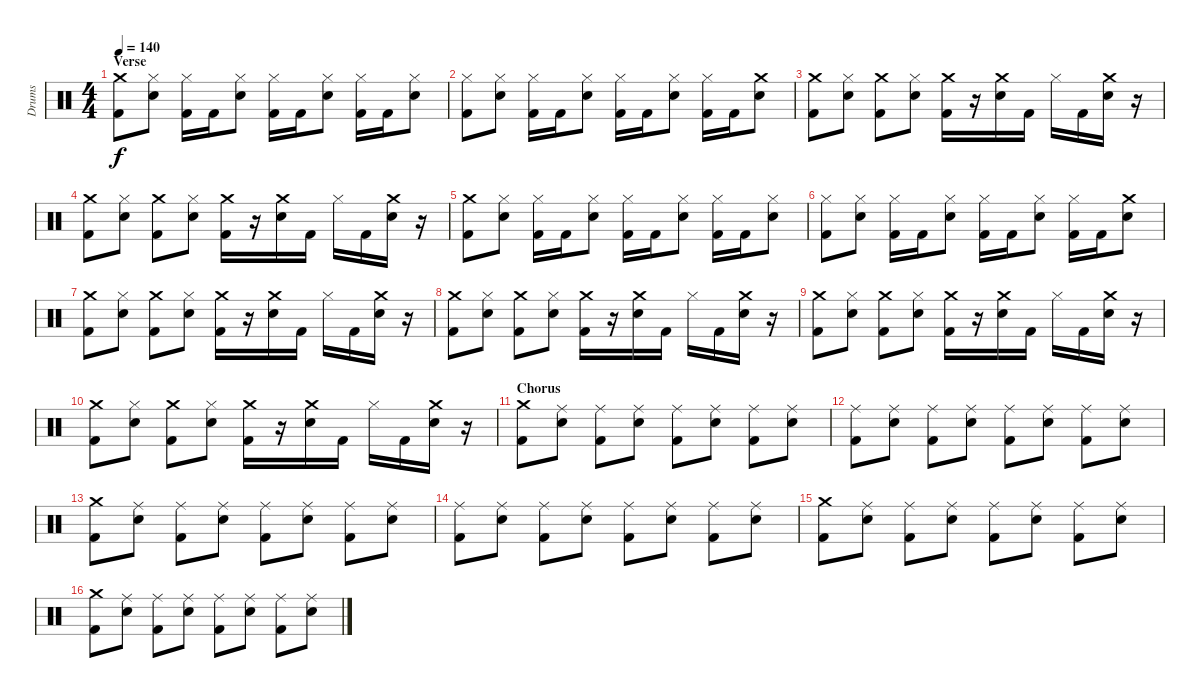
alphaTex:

\track ("Drums" "Drums") {instrument percussion}
\staff {score}
\articulation defaults
\ts (4 4)
\section ("" "Verse")
\tempo 140
\clef neutral
\ks c
("Crash medium (hit)" "Kick (hit) 2").8{dy f} ("Hi-Hat (closed)" "Snare (hit) 2").8 ("Hi-Hat (closed)" "Kick (hit) 2").16 "Kick (hit) 2".16 ("Hi-Hat (closed)" "Snare (hit) 2").8 ("Hi-Hat (closed)" "Kick (hit) 2").16 "Kick (hit) 2".16 ("Hi-Hat (closed)" "Snare (hit) 2").8 ("Hi-Hat (closed)" "Kick (hit) 2").16 "Kick (hit) 2".16 ("Hi-Hat (closed)" "Snare (hit) 2").8 |
("Hi-Hat (closed)" "Kick (hit) 2").8 ("Hi-Hat (closed)" "Snare (hit) 2").8 ("Hi-Hat (closed)" "Kick (hit) 2").16 "Kick (hit) 2".16 ("Hi-Hat (closed)" "Snare (hit) 2").8 ("Hi-Hat (closed)" "Kick (hit) 2").16 "Kick (hit) 2".16 ("Hi-Hat (closed)" "Snare (hit) 2").8 ("Hi-Hat (closed)" "Kick (hit) 2").16 "Kick (hit) 2".16 ("Crash medium (hit)" "Snare (hit) 2").8 |
("Crash medium (hit)" "Kick (hit) 2").8 ("Hi-Hat (closed)" "Snare (hit) 2").8 ("Crash medium (hit)" "Kick (hit) 2").8 ("Hi-Hat (closed)" "Snare (hit) 2").8 ("Crash medium (hit)" "Kick (hit) 2").16 r.16 ("Crash medium (hit)" "Snare (hit) 2").16 "Kick (hit) 2".16 "Hi-Hat (closed)".16 "Kick (hit) 2".16 ("Crash medium (hit)" "Snare (hit) 2").16 r.16 |
("Crash medium (hit)" "Kick (hit) 2").8 ("Hi-Hat (closed)" "Snare (hit) 2").8 ("Crash medium (hit)" "Kick (hit) 2").8 ("Hi-Hat (closed)" "Snare (hit) 2").8 ("Crash medium (hit)" "Kick (hit) 2").16 r.16 ("Crash medium (hit)" "Snare (hit) 2").16 "Kick (hit) 2".16 "Hi-Hat (closed)".16 "Kick (hit) 2".16 ("Crash medium (hit)" "Snare (hit) 2").16 r.16 |
("Crash medium (hit)" "Kick (hit) 2").8 ("Hi-Hat (closed)" "Snare (hit) 2").8 ("Hi-Hat (closed)" "Kick (hit) 2").16 "Kick (hit) 2".16 ("Hi-Hat (closed)" "Snare (hit) 2").8 ("Hi-Hat (closed)" "Kick (hit) 2").16 "Kick (hit) 2".16 ("Hi-Hat (closed)" "Snare (hit) 2").8 ("Hi-Hat (closed)" "Kick (hit) 2").16 "Kick (hit) 2".16 ("Hi-Hat (closed)" "Snare (hit) 2").8 |
("Hi-Hat (closed)" "Kick (hit) 2").8 ("Hi-Hat (closed)" "Snare (hit) 2").8 ("Hi-Hat (closed)" "Kick (hit) 2").16 "Kick (hit) 2".16 ("Hi-Hat (closed)" "Snare (hit) 2").8 ("Hi-Hat (closed)" "Kick (hit) 2").16 "Kick (hit) 2".16 ("Hi-Hat (closed)" "Snare (hit) 2").8 ("Hi-Hat (closed)" "Kick (hit) 2").16 "Kick (hit) 2".16 ("Crash medium (hit)" "Snare (hit) 2").8 |
("Crash medium (hit)" "Kick (hit) 2").8 ("Hi-Hat (closed)" "Snare (hit) 2").8 ("Crash medium (hit)" "Kick (hit) 2").8 ("Hi-Hat (closed)" "Snare (hit) 2").8 ("Crash medium (hit)" "Kick (hit) 2").16 r.16 ("Crash medium (hit)" "Snare (hit) 2").16 "Kick (hit) 2".16 "Hi-Hat (closed)".16 "Kick (hit) 2".16 ("Crash medium (hit)" "Snare (hit) 2").16 r.16 |
("Crash medium (hit)" "Kick (hit) 2").8 ("Hi-Hat (closed)" "Snare (hit) 2").8 ("Crash medium (hit)" "Kick (hit) 2").8 ("Hi-Hat (closed)" "Snare (hit) 2").8 ("Crash medium (hit)" "Kick (hit) 2").16 r.16 ("Crash medium (hit)" "Snare (hit) 2").16 "Kick (hit) 2".16 "Hi-Hat (closed)".16 "Kick (hit) 2".16 ("Crash medium (hit)" "Snare (hit) 2").16 r.16 |
("Crash medium (hit)" "Kick (hit) 2").8 ("Hi-Hat (closed)" "Snare (hit) 2").8 ("Crash medium (hit)" "Kick (hit) 2").8 ("Hi-Hat (closed)" "Snare (hit) 2").8 ("Crash medium (hit)" "Kick (hit) 2").16 r.16 ("Crash medium (hit)" "Snare (hit) 2").16 "Kick (hit) 2".16 "Hi-Hat (closed)".16 "Kick (hit) 2".16 ("Crash medium (hit)" "Snare (hit) 2").16 r.16 |
("Crash medium (hit)" "Kick (hit) 2").8 ("Hi-Hat (closed)" "Snare (hit) 2").8 ("Crash medium (hit)" "Kick (hit) 2").8 ("Hi-Hat (closed)" "Snare (hit) 2").8 ("Crash medium (hit)" "Kick (hit) 2").16 r.16 ("Crash medium (hit)" "Snare (hit) 2").16 "Kick (hit) 2".16 "Hi-Hat (closed)".16 "Kick (hit) 2".16 ("Crash medium (hit)" "Snare (hit) 2").16 r.16 |
\section ("" "Chorus")
("Crash medium (hit)" "Kick (hit) 2").8 ("Ride (middle)" "Snare (hit) 2").8 ("Ride (middle)" "Kick (hit) 2").8 ("Ride (middle)" "Snare (hit) 2").8 ("Ride (middle)" "Kick (hit) 2").8 ("Ride (middle)" "Snare (hit) 2").8 ("Ride (middle)" "Kick (hit) 2").8 ("Ride (middle)" "Snare (hit) 2").8 |
("Ride (middle)" "Kick (hit) 2").8 ("Ride (middle)" "Snare (hit) 2").8 ("Ride (middle)" "Kick (hit) 2").8 ("Ride (middle)" "Snare (hit) 2").8 ("Ride (middle)" "Kick (hit) 2").8 ("Ride (middle)" "Snare (hit) 2").8 ("Ride (middle)" "Kick (hit) 2").8 ("Ride (middle)" "Snare (hit) 2").8 |
("Crash medium (hit)" "Kick (hit) 2").8 ("Ride (middle)" "Snare (hit) 2").8 ("Ride (middle)" "Kick (hit) 2").8 ("Ride (middle)" "Snare (hit) 2").8 ("Ride (middle)" "Kick (hit) 2").8 ("Ride (middle)" "Snare (hit) 2").8 ("Ride (middle)" "Kick (hit) 2").8 ("Ride (middle)" "Snare (hit) 2").8 |
("Ride (middle)" "Kick (hit) 2").8 ("Ride (middle)" "Snare (hit) 2").8 ("Ride (middle)" "Kick (hit) 2").8 ("Ride (middle)" "Snare (hit) 2").8 ("Ride (middle)" "Kick (hit) 2").8 ("Ride (middle)" "Snare (hit) 2").8 ("Ride (middle)" "Kick (hit) 2").8 ("Ride (middle)" "Snare (hit) 2").8 |
("Crash medium (hit)" "Kick (hit) 2").8 ("Ride (middle)" "Snare (hit) 2").8 ("Ride (middle)" "Kick (hit) 2").8 ("Ride (middle)" "Snare (hit) 2").8 ("Ride (middle)" "Kick (hit) 2").8 ("Ride (middle)" "Snare (hit) 2").8 ("Ride (middle)" "Kick (hit) 2").8 ("Ride (middle)" "Snare (hit) 2").8 |
("Crash medium (hit)" "Kick (hit) 2").8 ("Ride (middle)" "Snare (hit) 2").8 ("Ride (middle)" "Kick (hit) 2").8 ("Ride (middle)" "Snare (hit) 2").8 ("Ride (middle)" "Kick (hit) 2").8 ("Ride (middle)" "Snare (hit) 2").8 ("Ride (middle)" "Kick (hit) 2").8 ("Ride (middle)" "Snare (hit) 2").8
